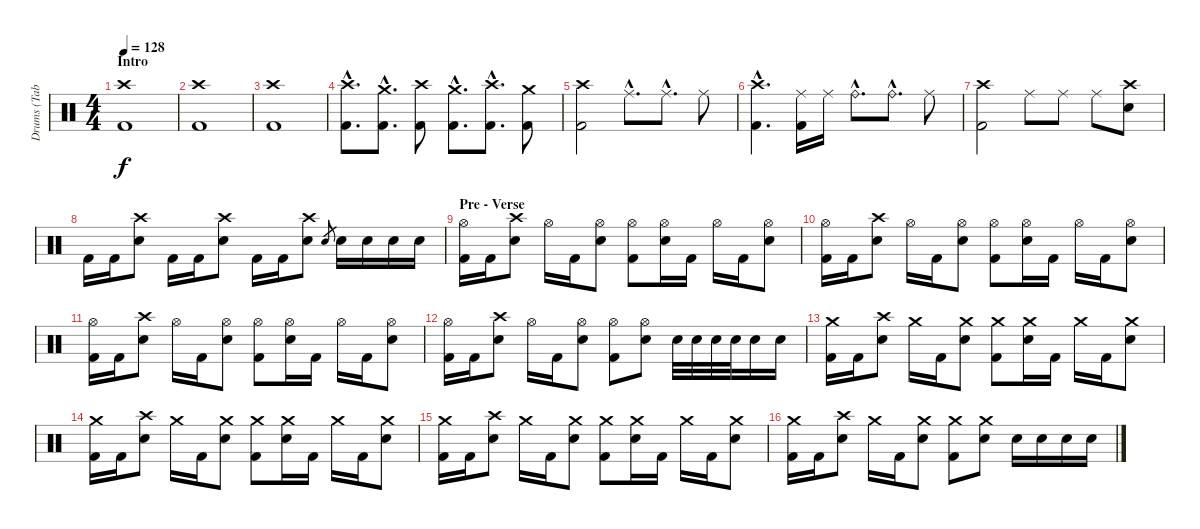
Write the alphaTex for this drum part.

\track ("Drums (Tabbed by: Leonardo_codev)" "Drums (Tab") {instrument percussion}
\staff {score}
\articulation defaults
\ts (4 4)
\section ("" "Intro")
\tempo 128
\clef neutral
\ks c
("Crash high (hit)" "Kick (hit) 2").1{dy f volume 8} |
("Crash high (hit)" "Kick (hit) 2").1 |
("Crash high (hit)" "Kick (hit) 2").1 |
("Crash high (hit)"{hac} "Kick (hit) 2"{hac}).8{d} ("Crash medium (hit)"{hac} "Kick (hit) 2"{hac}).8{d} ("Crash high (hit)" "Kick (hit) 2").8 ("Crash medium (hit)"{hac} "Kick (hit) 2"{hac}).8{d} ("Crash high (hit)"{hac} "Kick (hit) 2"{hac}).8{d} ("Crash medium (hit)" "Kick (hit) 2").8 |
("Crash high (hit)" "Kick (hit) 2").2 "Ride (middle)"{hac}.8{d} "Ride (middle)"{hac}.8{d} "Ride (middle)".8 |
("Crash high (hit)"{hac} "Kick (hit) 2"{hac}).4{d} ("Ride (middle)" "Kick (hit) 2").16 "Ride (middle)".16 "Ride (bell)"{hac}.8{d} "Ride (bell)"{hac}.8{d} "Ride (middle)".8 |
("Crash high (hit)" "Kick (hit) 2").2 "Ride (middle)".8 "Ride (middle)".8 "Ride (middle)".8 ("Crash high (hit)" "Electric Snare (hit)").8{volume 13} |
"Kick (hit) 2".16 "Kick (hit) 2".16 ("Crash high (hit)" "Electric Snare (hit)").8 "Kick (hit) 2".16 "Kick (hit) 2".16 ("Crash high (hit)" "Electric Snare (hit)").8 "Kick (hit) 2".16 "Kick (hit) 2".16 ("Crash high (hit)" "Electric Snare (hit)").8 "Electric Snare (hit)".8{gr} "Electric Snare (hit)".16 "Electric Snare (hit)".16 "Electric Snare (hit)".16 "Electric Snare (hit)".16 |
\section ("" "Pre - Verse")
("Hi-Hat (open)" "Kick (hit) 2").16 "Kick (hit) 2".16 ("Crash high (hit)" "Electric Snare (hit)").8 "Hi-Hat (open)".16 "Kick (hit) 2".16 ("Hi-Hat (open)" "Electric Snare (hit)").8 ("Hi-Hat (open)" "Kick (hit) 2").8 ("Hi-Hat (open)" "Electric Snare (hit)").16 "Kick (hit) 2".16 "Hi-Hat (open)".16 "Kick (hit) 2".16 ("Hi-Hat (open)" "Electric Snare (hit)").8 |
("Hi-Hat (open)" "Kick (hit) 2").16 "Kick (hit) 2".16 ("Crash high (hit)" "Electric Snare (hit)").8 "Hi-Hat (open)".16 "Kick (hit) 2".16 ("Hi-Hat (open)" "Electric Snare (hit)").8 ("Hi-Hat (open)" "Kick (hit) 2").8 ("Hi-Hat (open)" "Electric Snare (hit)").16 "Kick (hit) 2".16 "Hi-Hat (open)".16 "Kick (hit) 2".16 ("Hi-Hat (open)" "Electric Snare (hit)").8 |
("Hi-Hat (open)" "Kick (hit) 2").16 "Kick (hit) 2".16 ("Crash high (hit)" "Electric Snare (hit)").8 "Hi-Hat (open)".16 "Kick (hit) 2".16 ("Hi-Hat (open)" "Electric Snare (hit)").8 ("Hi-Hat (open)" "Kick (hit) 2").8 ("Hi-Hat (open)" "Electric Snare (hit)").16 "Kick (hit) 2".16 "Hi-Hat (open)".16 "Kick (hit) 2".16 ("Hi-Hat (open)" "Electric Snare (hit)").8 |
("Hi-Hat (open)" "Kick (hit) 2").16 "Kick (hit) 2".16 ("Crash high (hit)" "Electric Snare (hit)").8 "Hi-Hat (open)".16 "Kick (hit) 2".16 ("Hi-Hat (open)" "Electric Snare (hit)").8 ("Hi-Hat (open)" "Kick (hit) 2").8 ("Hi-Hat (open)" "Electric Snare (hit)").8 "Electric Snare (hit)".32 "Electric Snare (hit)".32 "Electric Snare (hit)".32 "Electric Snare (hit)".32 "Electric Snare (hit)".16 "Electric Snare (hit)".16 |
("Crash medium (hit)" "Kick (hit) 2").16 "Kick (hit) 2".16 ("Crash high (hit)" "Electric Snare (hit)").8 "Crash medium (hit)".16 "Kick (hit) 2".16 ("Crash medium (hit)" "Electric Snare (hit)").8 ("Crash medium (hit)" "Kick (hit) 2").8 ("Crash medium (hit)" "Electric Snare (hit)").16 "Kick (hit) 2".16 "Crash medium (hit)".16 "Kick (hit) 2".16 ("Crash medium (hit)" "Electric Snare (hit)").8 |
("Crash medium (hit)" "Kick (hit) 2").16 "Kick (hit) 2".16 ("Crash high (hit)" "Electric Snare (hit)").8 "Crash medium (hit)".16 "Kick (hit) 2".16 ("Crash medium (hit)" "Electric Snare (hit)").8 ("Crash medium (hit)" "Kick (hit) 2").8 ("Crash medium (hit)" "Electric Snare (hit)").16 "Kick (hit) 2".16 "Crash medium (hit)".16 "Kick (hit) 2".16 ("Crash medium (hit)" "Electric Snare (hit)").8 |
("Crash medium (hit)" "Kick (hit) 2").16 "Kick (hit) 2".16 ("Crash high (hit)" "Electric Snare (hit)").8 "Crash medium (hit)".16 "Kick (hit) 2".16 ("Crash medium (hit)" "Electric Snare (hit)").8 ("Crash medium (hit)" "Kick (hit) 2").8 ("Crash medium (hit)" "Electric Snare (hit)").16 "Kick (hit) 2".16 "Crash medium (hit)".16 "Kick (hit) 2".16 ("Crash medium (hit)" "Electric Snare (hit)").8 |
("Crash medium (hit)" "Kick (hit) 2").16 "Kick (hit) 2".16 ("Crash high (hit)" "Electric Snare (hit)").8 "Crash medium (hit)".16 "Kick (hit) 2".16 ("Crash medium (hit)" "Electric Snare (hit)").8 ("Crash medium (hit)" "Kick (hit) 2").8 ("Crash medium (hit)" "Electric Snare (hit)").8 "Electric Snare (hit)".16 "Electric Snare (hit)".16 "Electric Snare (hit)".16 "Electric Snare (hit)".16
